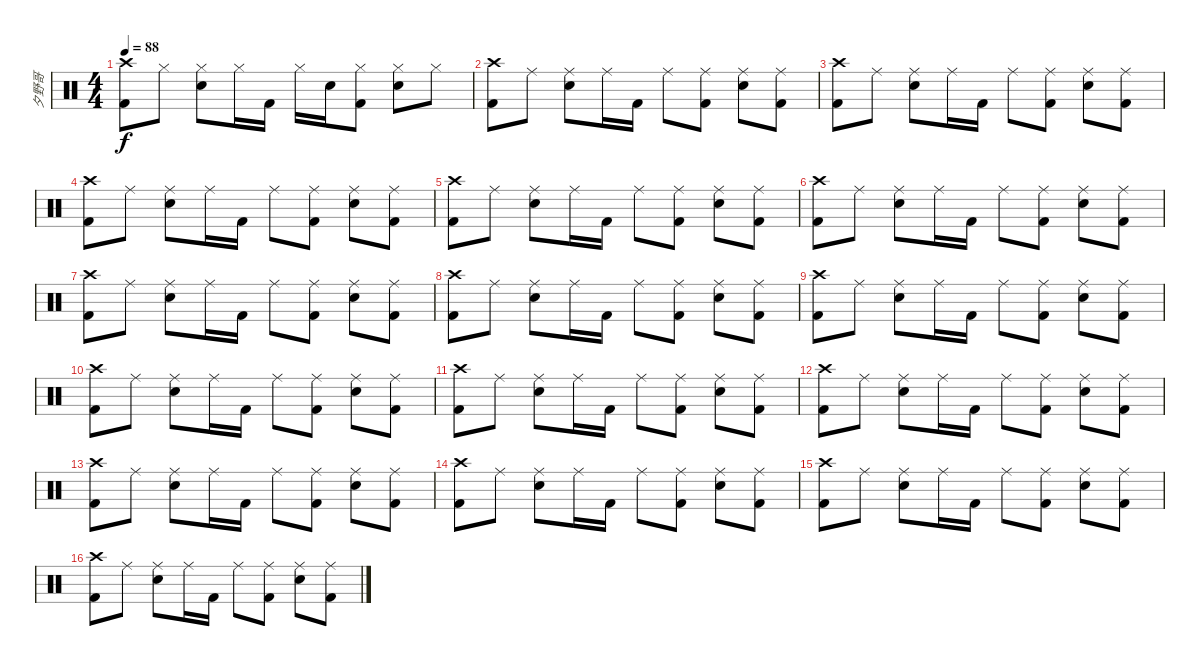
\track ("夕野哥" "夕野哥") {instrument percussion}
\staff {score}
\articulation defaults
\ts (4 4)
\tempo 88
\clef neutral
\ks c
("Crash high (hit)" "Kick (hit) 2").8{dy f} "Hi-Hat (closed)".8 ("Hi-Hat (closed)" "Electric Snare (hit)").8 "Hi-Hat (closed)".16 "Kick (hit) 2".16 "Hi-Hat (closed)".16 "Electric Snare (hit)".16 ("Hi-Hat (closed)" "Kick (hit) 2").8 ("Hi-Hat (closed)" "Electric Snare (hit)").8 "Hi-Hat (closed)".8 |
("Crash high (hit)" "Kick (hit) 2").8 "Ride (middle)".8 ("Ride (middle)" "Electric Snare (hit)").8 "Ride (middle)".16 "Kick (hit) 2".16 "Ride (middle)".8 ("Ride (middle)" "Kick (hit) 2").8 ("Ride (middle)" "Electric Snare (hit)").8 ("Ride (middle)" "Kick (hit) 2").8 |
("Crash high (hit)" "Kick (hit) 2").8 "Ride (middle)".8 ("Ride (middle)" "Electric Snare (hit)").8 "Ride (middle)".16 "Kick (hit) 2".16 "Ride (middle)".8 ("Ride (middle)" "Kick (hit) 2").8 ("Ride (middle)" "Electric Snare (hit)").8 ("Ride (middle)" "Kick (hit) 2").8 |
("Crash high (hit)" "Kick (hit) 2").8 "Ride (middle)".8 ("Ride (middle)" "Electric Snare (hit)").8 "Ride (middle)".16 "Kick (hit) 2".16 "Ride (middle)".8 ("Ride (middle)" "Kick (hit) 2").8 ("Ride (middle)" "Electric Snare (hit)").8 ("Ride (middle)" "Kick (hit) 2").8 |
("Crash high (hit)" "Kick (hit) 2").8 "Ride (middle)".8 ("Ride (middle)" "Electric Snare (hit)").8 "Ride (middle)".16 "Kick (hit) 2".16 "Ride (middle)".8 ("Ride (middle)" "Kick (hit) 2").8 ("Ride (middle)" "Electric Snare (hit)").8 ("Ride (middle)" "Kick (hit) 2").8 |
("Crash high (hit)" "Kick (hit) 2").8 "Ride (middle)".8 ("Ride (middle)" "Electric Snare (hit)").8 "Ride (middle)".16 "Kick (hit) 2".16 "Ride (middle)".8 ("Ride (middle)" "Kick (hit) 2").8 ("Ride (middle)" "Electric Snare (hit)").8 ("Ride (middle)" "Kick (hit) 2").8 |
("Crash high (hit)" "Kick (hit) 2").8 "Ride (middle)".8 ("Ride (middle)" "Electric Snare (hit)").8 "Ride (middle)".16 "Kick (hit) 2".16 "Ride (middle)".8 ("Ride (middle)" "Kick (hit) 2").8 ("Ride (middle)" "Electric Snare (hit)").8 ("Ride (middle)" "Kick (hit) 2").8 |
("Crash high (hit)" "Kick (hit) 2").8 "Ride (middle)".8 ("Ride (middle)" "Electric Snare (hit)").8 "Ride (middle)".16 "Kick (hit) 2".16 "Ride (middle)".8 ("Ride (middle)" "Kick (hit) 2").8 ("Ride (middle)" "Electric Snare (hit)").8 ("Ride (middle)" "Kick (hit) 2").8 |
("Crash high (hit)" "Kick (hit) 2").8 "Ride (middle)".8 ("Ride (middle)" "Electric Snare (hit)").8 "Ride (middle)".16 "Kick (hit) 2".16 "Ride (middle)".8 ("Ride (middle)" "Kick (hit) 2").8 ("Ride (middle)" "Electric Snare (hit)").8 ("Ride (middle)" "Kick (hit) 2").8 |
("Crash high (hit)" "Kick (hit) 2").8 "Ride (middle)".8 ("Ride (middle)" "Electric Snare (hit)").8 "Ride (middle)".16 "Kick (hit) 2".16 "Ride (middle)".8 ("Ride (middle)" "Kick (hit) 2").8 ("Ride (middle)" "Electric Snare (hit)").8 ("Ride (middle)" "Kick (hit) 2").8 |
("Crash high (hit)" "Kick (hit) 2").8 "Ride (middle)".8 ("Ride (middle)" "Electric Snare (hit)").8 "Ride (middle)".16 "Kick (hit) 2".16 "Ride (middle)".8 ("Ride (middle)" "Kick (hit) 2").8 ("Ride (middle)" "Electric Snare (hit)").8 ("Ride (middle)" "Kick (hit) 2").8 |
("Crash high (hit)" "Kick (hit) 2").8 "Ride (middle)".8 ("Ride (middle)" "Electric Snare (hit)").8 "Ride (middle)".16 "Kick (hit) 2".16 "Ride (middle)".8 ("Ride (middle)" "Kick (hit) 2").8 ("Ride (middle)" "Electric Snare (hit)").8 ("Ride (middle)" "Kick (hit) 2").8 |
("Crash high (hit)" "Kick (hit) 2").8 "Ride (middle)".8 ("Ride (middle)" "Electric Snare (hit)").8 "Ride (middle)".16 "Kick (hit) 2".16 "Ride (middle)".8 ("Ride (middle)" "Kick (hit) 2").8 ("Ride (middle)" "Electric Snare (hit)").8 ("Ride (middle)" "Kick (hit) 2").8 |
("Crash high (hit)" "Kick (hit) 2").8 "Ride (middle)".8 ("Ride (middle)" "Electric Snare (hit)").8 "Ride (middle)".16 "Kick (hit) 2".16 "Ride (middle)".8 ("Ride (middle)" "Kick (hit) 2").8 ("Ride (middle)" "Electric Snare (hit)").8 ("Ride (middle)" "Kick (hit) 2").8 |
("Crash high (hit)" "Kick (hit) 2").8 "Ride (middle)".8 ("Ride (middle)" "Electric Snare (hit)").8 "Ride (middle)".16 "Kick (hit) 2".16 "Ride (middle)".8 ("Ride (middle)" "Kick (hit) 2").8 ("Ride (middle)" "Electric Snare (hit)").8 ("Ride (middle)" "Kick (hit) 2").8 |
("Crash high (hit)" "Kick (hit) 2").8 "Ride (middle)".8 ("Ride (middle)" "Electric Snare (hit)").8 "Ride (middle)".16 "Kick (hit) 2".16 "Ride (middle)".8 ("Ride (middle)" "Kick (hit) 2").8 ("Ride (middle)" "Electric Snare (hit)").8 ("Ride (middle)" "Kick (hit) 2").8
